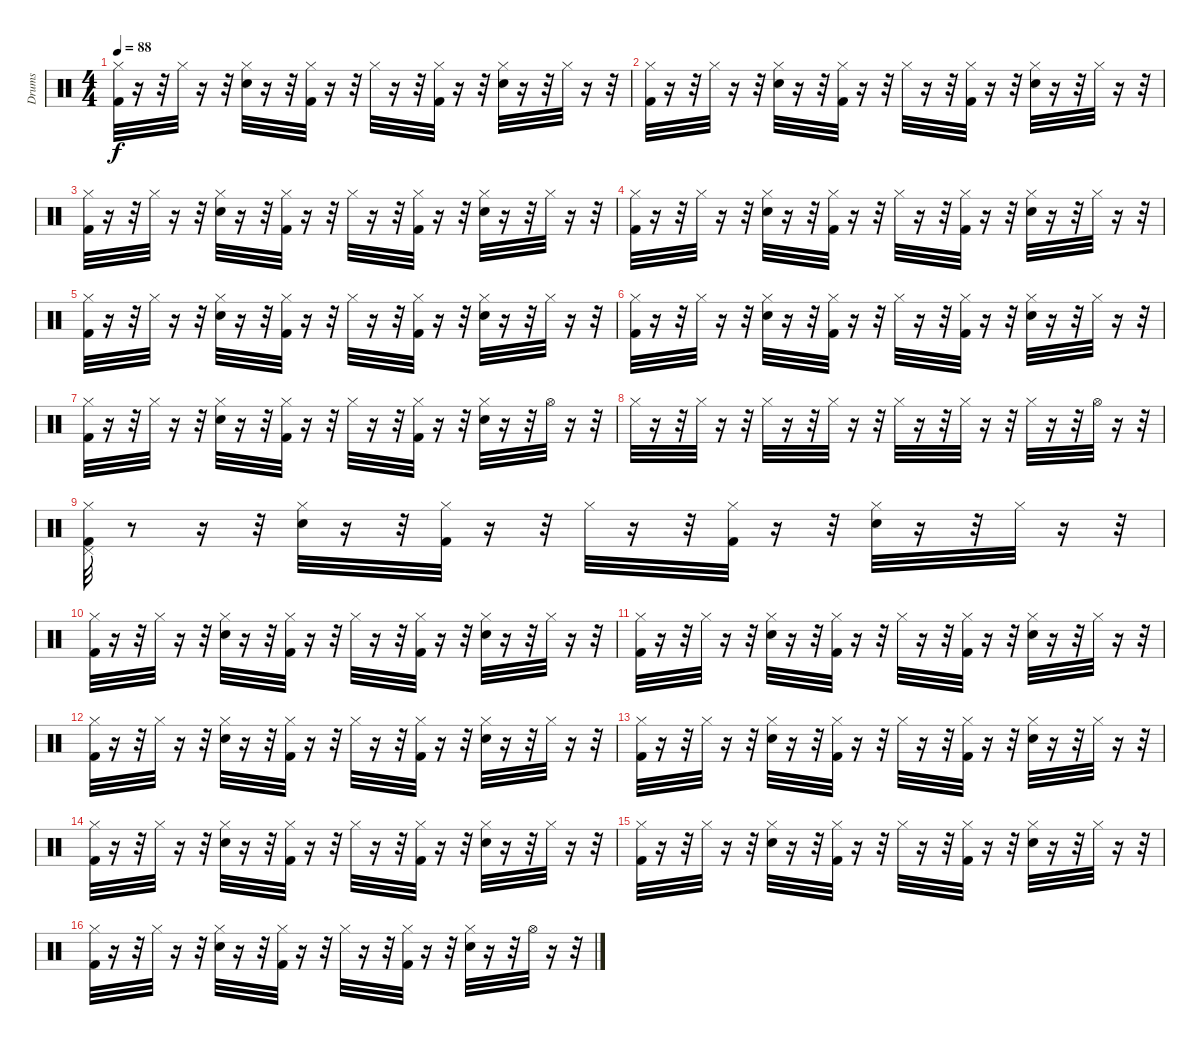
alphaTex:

\track ("Drums" "Drums") {instrument percussion}
\staff {score}
\articulation defaults
\ts (4 4)
\tempo 88
\clef neutral
\ks c
("Hi-Hat (closed)" "Kick (hit) 2").32{dy f} r.16 r.32 "Hi-Hat (closed)".32 r.16 r.32 ("Hi-Hat (closed)" "Electric Snare (hit)").32 r.16 r.32 ("Kick (hit) 2" "Hi-Hat (closed)").32 r.16 r.32 "Hi-Hat (closed)".32 r.16 r.32 ("Kick (hit) 2" "Hi-Hat (closed)").32 r.16 r.32 ("Hi-Hat (closed)" "Electric Snare (hit)").32 r.16 r.32 "Hi-Hat (closed)".32 r.16 r.32 |
("Hi-Hat (closed)" "Kick (hit) 2").32 r.16 r.32 "Hi-Hat (closed)".32 r.16 r.32 ("Hi-Hat (closed)" "Electric Snare (hit)").32 r.16 r.32 ("Kick (hit) 2" "Hi-Hat (closed)").32 r.16 r.32 "Hi-Hat (closed)".32 r.16 r.32 ("Kick (hit) 2" "Hi-Hat (closed)").32 r.16 r.32 ("Hi-Hat (closed)" "Electric Snare (hit)").32 r.16 r.32 "Hi-Hat (closed)".32 r.16 r.32 |
("Hi-Hat (closed)" "Kick (hit) 2").32 r.16 r.32 "Hi-Hat (closed)".32 r.16 r.32 ("Hi-Hat (closed)" "Electric Snare (hit)").32 r.16 r.32 ("Kick (hit) 2" "Hi-Hat (closed)").32 r.16 r.32 "Hi-Hat (closed)".32 r.16 r.32 ("Kick (hit) 2" "Hi-Hat (closed)").32 r.16 r.32 ("Hi-Hat (closed)" "Electric Snare (hit)").32 r.16 r.32 "Hi-Hat (closed)".32 r.16 r.32 |
("Hi-Hat (closed)" "Kick (hit) 2").32 r.16 r.32 "Hi-Hat (closed)".32 r.16 r.32 ("Hi-Hat (closed)" "Electric Snare (hit)").32 r.16 r.32 ("Kick (hit) 2" "Hi-Hat (closed)").32 r.16 r.32 "Hi-Hat (closed)".32 r.16 r.32 ("Kick (hit) 2" "Hi-Hat (closed)").32 r.16 r.32 ("Hi-Hat (closed)" "Electric Snare (hit)").32 r.16 r.32 "Hi-Hat (closed)".32 r.16 r.32 |
("Hi-Hat (closed)" "Kick (hit) 2").32 r.16 r.32 "Hi-Hat (closed)".32 r.16 r.32 ("Hi-Hat (closed)" "Electric Snare (hit)").32 r.16 r.32 ("Kick (hit) 2" "Hi-Hat (closed)").32 r.16 r.32 "Hi-Hat (closed)".32 r.16 r.32 ("Kick (hit) 2" "Hi-Hat (closed)").32 r.16 r.32 ("Hi-Hat (closed)" "Electric Snare (hit)").32 r.16 r.32 "Hi-Hat (closed)".32 r.16 r.32 |
("Hi-Hat (closed)" "Kick (hit) 2").32 r.16 r.32 "Hi-Hat (closed)".32 r.16 r.32 ("Hi-Hat (closed)" "Electric Snare (hit)").32 r.16 r.32 ("Kick (hit) 2" "Hi-Hat (closed)").32 r.16 r.32 "Hi-Hat (closed)".32 r.16 r.32 ("Kick (hit) 2" "Hi-Hat (closed)").32 r.16 r.32 ("Hi-Hat (closed)" "Electric Snare (hit)").32 r.16 r.32 "Hi-Hat (closed)".32 r.16 r.32 |
("Hi-Hat (closed)" "Kick (hit) 2").32 r.16 r.32 "Hi-Hat (closed)".32 r.16 r.32 ("Hi-Hat (closed)" "Electric Snare (hit)").32 r.16 r.32 ("Kick (hit) 2" "Hi-Hat (closed)").32 r.16 r.32 "Hi-Hat (closed)".32 r.16 r.32 ("Kick (hit) 2" "Hi-Hat (closed)").32 r.16 r.32 ("Hi-Hat (closed)" "Electric Snare (hit)").32 r.16 r.32 "Hi-Hat (open)".32 r.16 r.32 |
"Hi-Hat (closed)".32 r.16 r.32 "Hi-Hat (closed)".32 r.16 r.32 "Hi-Hat (closed)".32 r.16 r.32 "Hi-Hat (closed)".32 r.16 r.32 "Hi-Hat (closed)".32 r.16 r.32 "Hi-Hat (closed)".32 r.16 r.32 "Hi-Hat (closed)".32 r.16 r.32 "Hi-Hat (open)".32 r.16 r.32 |
("Hi-Hat (closed)" "Pedal Hi-Hat (hit)" "Kick (hit) 2").32 r.8 r.16 r.32 ("Hi-Hat (closed)" "Electric Snare (hit)").32 r.16 r.32 ("Kick (hit) 2" "Hi-Hat (closed)").32 r.16 r.32 "Hi-Hat (closed)".32 r.16 r.32 ("Kick (hit) 2" "Hi-Hat (closed)").32 r.16 r.32 ("Hi-Hat (closed)" "Electric Snare (hit)").32 r.16 r.32 "Hi-Hat (closed)".32 r.16 r.32 |
("Hi-Hat (closed)" "Kick (hit) 2").32 r.16 r.32 "Hi-Hat (closed)".32 r.16 r.32 ("Hi-Hat (closed)" "Electric Snare (hit)").32 r.16 r.32 ("Kick (hit) 2" "Hi-Hat (closed)").32 r.16 r.32 "Hi-Hat (closed)".32 r.16 r.32 ("Kick (hit) 2" "Hi-Hat (closed)").32 r.16 r.32 ("Hi-Hat (closed)" "Electric Snare (hit)").32 r.16 r.32 "Hi-Hat (closed)".32 r.16 r.32 |
("Hi-Hat (closed)" "Kick (hit) 2").32 r.16 r.32 "Hi-Hat (closed)".32 r.16 r.32 ("Hi-Hat (closed)" "Electric Snare (hit)").32 r.16 r.32 ("Kick (hit) 2" "Hi-Hat (closed)").32 r.16 r.32 "Hi-Hat (closed)".32 r.16 r.32 ("Kick (hit) 2" "Hi-Hat (closed)").32 r.16 r.32 ("Hi-Hat (closed)" "Electric Snare (hit)").32 r.16 r.32 "Hi-Hat (closed)".32 r.16 r.32 |
("Hi-Hat (closed)" "Kick (hit) 2").32 r.16 r.32 "Hi-Hat (closed)".32 r.16 r.32 ("Hi-Hat (closed)" "Electric Snare (hit)").32 r.16 r.32 ("Kick (hit) 2" "Hi-Hat (closed)").32 r.16 r.32 "Hi-Hat (closed)".32 r.16 r.32 ("Kick (hit) 2" "Hi-Hat (closed)").32 r.16 r.32 ("Hi-Hat (closed)" "Electric Snare (hit)").32 r.16 r.32 "Hi-Hat (closed)".32 r.16 r.32 |
("Hi-Hat (closed)" "Kick (hit) 2").32 r.16 r.32 "Hi-Hat (closed)".32 r.16 r.32 ("Hi-Hat (closed)" "Electric Snare (hit)").32 r.16 r.32 ("Kick (hit) 2" "Hi-Hat (closed)").32 r.16 r.32 "Hi-Hat (closed)".32 r.16 r.32 ("Kick (hit) 2" "Hi-Hat (closed)").32 r.16 r.32 ("Hi-Hat (closed)" "Electric Snare (hit)").32 r.16 r.32 "Hi-Hat (closed)".32 r.16 r.32 |
("Hi-Hat (closed)" "Kick (hit) 2").32 r.16 r.32 "Hi-Hat (closed)".32 r.16 r.32 ("Hi-Hat (closed)" "Electric Snare (hit)").32 r.16 r.32 ("Kick (hit) 2" "Hi-Hat (closed)").32 r.16 r.32 "Hi-Hat (closed)".32 r.16 r.32 ("Kick (hit) 2" "Hi-Hat (closed)").32 r.16 r.32 ("Hi-Hat (closed)" "Electric Snare (hit)").32 r.16 r.32 "Hi-Hat (closed)".32 r.16 r.32 |
("Hi-Hat (closed)" "Kick (hit) 2").32 r.16 r.32 "Hi-Hat (closed)".32 r.16 r.32 ("Hi-Hat (closed)" "Electric Snare (hit)").32 r.16 r.32 ("Kick (hit) 2" "Hi-Hat (closed)").32 r.16 r.32 "Hi-Hat (closed)".32 r.16 r.32 ("Kick (hit) 2" "Hi-Hat (closed)").32 r.16 r.32 ("Hi-Hat (closed)" "Electric Snare (hit)").32 r.16 r.32 "Hi-Hat (closed)".32 r.16 r.32 |
("Hi-Hat (closed)" "Kick (hit) 2").32 r.16 r.32 "Hi-Hat (closed)".32 r.16 r.32 ("Hi-Hat (closed)" "Electric Snare (hit)").32 r.16 r.32 ("Kick (hit) 2" "Hi-Hat (closed)").32 r.16 r.32 "Hi-Hat (closed)".32 r.16 r.32 ("Kick (hit) 2" "Hi-Hat (closed)").32 r.16 r.32 ("Hi-Hat (closed)" "Electric Snare (hit)").32 r.16 r.32 "Hi-Hat (open)".32 r.16 r.32
